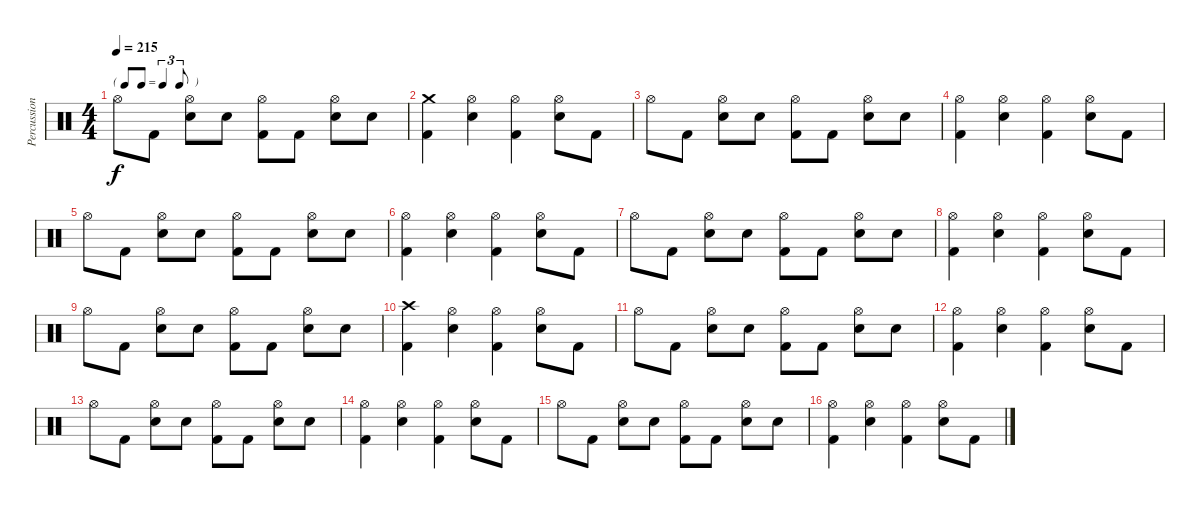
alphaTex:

\track ("Percussion" "Percussion") {instrument percussion}
\staff {score}
\articulation defaults
\ts (4 4)
\tf triplet8th
\tempo 215
\clef neutral
\ks c "Hi-Hat (open)".8{dy f} "Kick (hit) 2".8
("Hi-Hat (open)" "Snare (hit) 2").8 "Snare (hit) 2".8 ("Hi-Hat (open)" "Kick (hit) 2").8 "Kick (hit) 2".8 ("Hi-Hat (open)" "Snare (hit) 2").8 "Snare (hit) 2".8 |
("Crash medium (hit)" "Kick (hit) 2").4 ("Hi-Hat (open)" "Snare (hit) 2").4 ("Hi-Hat (open)" "Kick (hit) 2").4 ("Hi-Hat (open)" "Snare (hit) 2").8 "Kick (hit) 2".8 |
"Hi-Hat (open)".8 "Kick (hit) 2".8 ("Hi-Hat (open)" "Snare (hit) 2").8 "Snare (hit) 2".8 ("Hi-Hat (open)" "Kick (hit) 2").8 "Kick (hit) 2".8 ("Hi-Hat (open)" "Snare (hit) 2").8 "Snare (hit) 2".8 |
("Hi-Hat (open)" "Kick (hit) 2").4 ("Hi-Hat (open)" "Snare (hit) 2").4 ("Hi-Hat (open)" "Kick (hit) 2").4 ("Hi-Hat (open)" "Snare (hit) 2").8 "Kick (hit) 2".8 |
"Hi-Hat (open)".8 "Kick (hit) 2".8 ("Hi-Hat (open)" "Snare (hit) 2").8 "Snare (hit) 2".8 ("Hi-Hat (open)" "Kick (hit) 2").8 "Kick (hit) 2".8 ("Hi-Hat (open)" "Snare (hit) 2").8 "Snare (hit) 2".8 |
("Hi-Hat (open)" "Kick (hit) 2").4 ("Hi-Hat (open)" "Snare (hit) 2").4 ("Hi-Hat (open)" "Kick (hit) 2").4 ("Hi-Hat (open)" "Snare (hit) 2").8 "Kick (hit) 2".8 |
"Hi-Hat (open)".8 "Kick (hit) 2".8 ("Hi-Hat (open)" "Snare (hit) 2").8 "Snare (hit) 2".8 ("Hi-Hat (open)" "Kick (hit) 2").8 "Kick (hit) 2".8 ("Hi-Hat (open)" "Snare (hit) 2").8 "Snare (hit) 2".8 |
("Hi-Hat (open)" "Kick (hit) 2").4 ("Hi-Hat (open)" "Snare (hit) 2").4 ("Hi-Hat (open)" "Kick (hit) 2").4 ("Hi-Hat (open)" "Snare (hit) 2").8 "Kick (hit) 2".8 |
"Hi-Hat (open)".8 "Kick (hit) 2".8 ("Hi-Hat (open)" "Snare (hit) 2").8 "Snare (hit) 2".8 ("Hi-Hat (open)" "Kick (hit) 2").8 "Kick (hit) 2".8 ("Hi-Hat (open)" "Snare (hit) 2").8 "Snare (hit) 2".8 |
("Crash high (hit)" "Kick (hit) 2").4 ("Hi-Hat (open)" "Snare (hit) 2").4 ("Hi-Hat (open)" "Kick (hit) 2").4 ("Hi-Hat (open)" "Snare (hit) 2").8 "Kick (hit) 2".8 |
"Hi-Hat (open)".8 "Kick (hit) 2".8 ("Hi-Hat (open)" "Snare (hit) 2").8 "Snare (hit) 2".8 ("Hi-Hat (open)" "Kick (hit) 2").8 "Kick (hit) 2".8 ("Hi-Hat (open)" "Snare (hit) 2").8 "Snare (hit) 2".8 |
("Hi-Hat (open)" "Kick (hit) 2").4 ("Hi-Hat (open)" "Snare (hit) 2").4 ("Hi-Hat (open)" "Kick (hit) 2").4 ("Hi-Hat (open)" "Snare (hit) 2").8 "Kick (hit) 2".8 |
"Hi-Hat (open)".8 "Kick (hit) 2".8 ("Hi-Hat (open)" "Snare (hit) 2").8 "Snare (hit) 2".8 ("Hi-Hat (open)" "Kick (hit) 2").8 "Kick (hit) 2".8 ("Hi-Hat (open)" "Snare (hit) 2").8 "Snare (hit) 2".8 |
("Hi-Hat (open)" "Kick (hit) 2").4 ("Hi-Hat (open)" "Snare (hit) 2").4 ("Hi-Hat (open)" "Kick (hit) 2").4 ("Hi-Hat (open)" "Snare (hit) 2").8 "Kick (hit) 2".8 |
"Hi-Hat (open)".8 "Kick (hit) 2".8 ("Hi-Hat (open)" "Snare (hit) 2").8 "Snare (hit) 2".8 ("Hi-Hat (open)" "Kick (hit) 2").8 "Kick (hit) 2".8 ("Hi-Hat (open)" "Snare (hit) 2").8 "Snare (hit) 2".8 |
("Hi-Hat (open)" "Kick (hit) 2").4 ("Hi-Hat (open)" "Snare (hit) 2").4 ("Hi-Hat (open)" "Kick (hit) 2").4 ("Hi-Hat (open)" "Snare (hit) 2").8 "Kick (hit) 2".8
